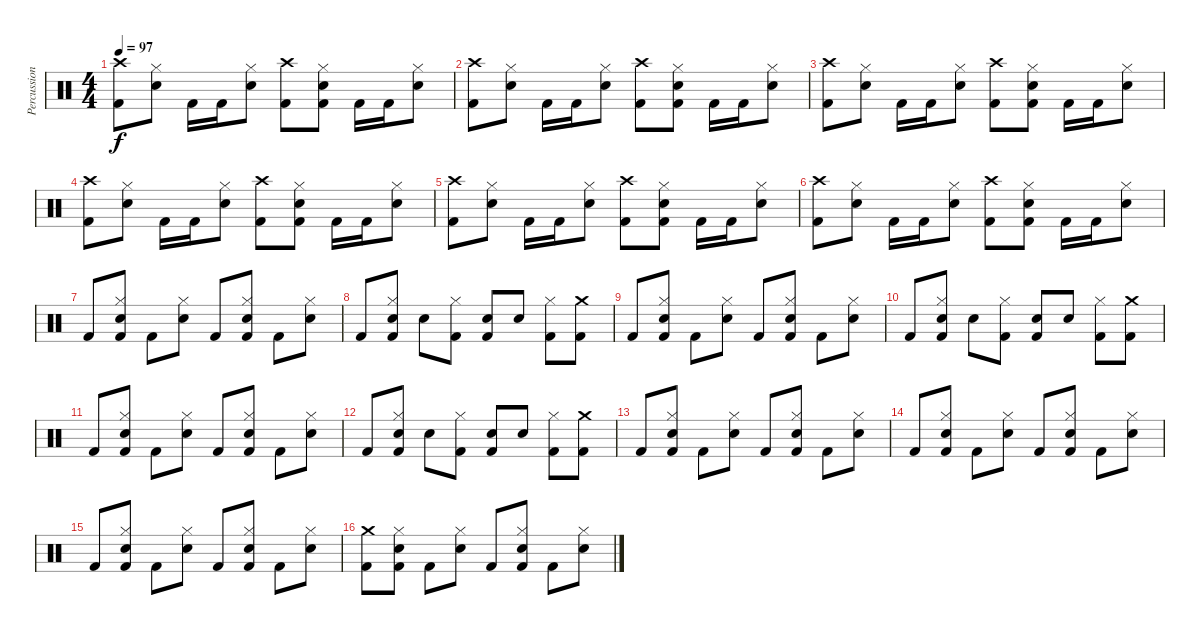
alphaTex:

\track ("Percussion" "Percussion") {instrument percussion}
\staff {score}
\articulation defaults
\ts (4 4)
\tempo 97
\clef neutral
\ks c
("Crash high (hit)" "Kick (hit) 2").8{dy f} ("Hi-Hat (closed)" "Snare (hit) 2").8 "Kick (hit) 2".16 "Kick (hit) 2".16 ("Hi-Hat (closed)" "Snare (hit) 2").8 ("Crash high (hit)" "Kick (hit) 2").8 ("Hi-Hat (closed)" "Snare (hit) 2" "Kick (hit) 2").8 "Kick (hit) 2".16 "Kick (hit) 2".16 ("Hi-Hat (closed)" "Snare (hit) 2").8 |
("Crash high (hit)" "Kick (hit) 2").8 ("Hi-Hat (closed)" "Snare (hit) 2").8 "Kick (hit) 2".16 "Kick (hit) 2".16 ("Hi-Hat (closed)" "Snare (hit) 2").8 ("Crash high (hit)" "Kick (hit) 2").8 ("Hi-Hat (closed)" "Snare (hit) 2" "Kick (hit) 2").8 "Kick (hit) 2".16 "Kick (hit) 2".16 ("Hi-Hat (closed)" "Snare (hit) 2").8 |
("Crash high (hit)" "Kick (hit) 2").8 ("Hi-Hat (closed)" "Snare (hit) 2").8 "Kick (hit) 2".16 "Kick (hit) 2".16 ("Hi-Hat (closed)" "Snare (hit) 2").8 ("Crash high (hit)" "Kick (hit) 2").8 ("Hi-Hat (closed)" "Snare (hit) 2" "Kick (hit) 2").8 "Kick (hit) 2".16 "Kick (hit) 2".16 ("Hi-Hat (closed)" "Snare (hit) 2").8 |
("Crash high (hit)" "Kick (hit) 2").8 ("Hi-Hat (closed)" "Snare (hit) 2").8 "Kick (hit) 2".16 "Kick (hit) 2".16 ("Hi-Hat (closed)" "Snare (hit) 2").8 ("Crash high (hit)" "Kick (hit) 2").8 ("Hi-Hat (closed)" "Snare (hit) 2" "Kick (hit) 2").8 "Kick (hit) 2".16 "Kick (hit) 2".16 ("Hi-Hat (closed)" "Snare (hit) 2").8 |
("Crash high (hit)" "Kick (hit) 2").8 ("Hi-Hat (closed)" "Snare (hit) 2").8 "Kick (hit) 2".16 "Kick (hit) 2".16 ("Hi-Hat (closed)" "Snare (hit) 2").8 ("Crash high (hit)" "Kick (hit) 2").8 ("Hi-Hat (closed)" "Snare (hit) 2" "Kick (hit) 2").8 "Kick (hit) 2".16 "Kick (hit) 2".16 ("Hi-Hat (closed)" "Snare (hit) 2").8 |
("Crash high (hit)" "Kick (hit) 2").8 ("Hi-Hat (closed)" "Snare (hit) 2").8 "Kick (hit) 2".16 "Kick (hit) 2".16 ("Hi-Hat (closed)" "Snare (hit) 2").8 ("Crash high (hit)" "Kick (hit) 2").8 ("Hi-Hat (closed)" "Snare (hit) 2" "Kick (hit) 2").8 "Kick (hit) 2".16 "Kick (hit) 2".16 ("Hi-Hat (closed)" "Snare (hit) 2").8 |
"Kick (hit) 2".8 ("Hi-Hat (closed)" "Snare (hit) 2" "Kick (hit) 2").8 "Kick (hit) 2".8 ("Hi-Hat (closed)" "Snare (hit) 2").8 "Kick (hit) 2".8 ("Hi-Hat (closed)" "Snare (hit) 2" "Kick (hit) 2").8 "Kick (hit) 2".8 ("Hi-Hat (closed)" "Snare (hit) 2").8 |
"Kick (hit) 2".8 ("Hi-Hat (closed)" "Snare (hit) 2" "Kick (hit) 2").8 "Snare (hit) 2".8 ("Hi-Hat (closed)" "Kick (hit) 2").8 ("Snare (hit) 2" "Kick (hit) 2").8 "Snare (hit) 2".8 ("Hi-Hat (closed)" "Kick (hit) 2").8 ("Crash medium (hit)" "Kick (hit) 2").8 |
"Kick (hit) 2".8 ("Hi-Hat (closed)" "Snare (hit) 2" "Kick (hit) 2").8 "Kick (hit) 2".8 ("Hi-Hat (closed)" "Snare (hit) 2").8 "Kick (hit) 2".8 ("Hi-Hat (closed)" "Snare (hit) 2" "Kick (hit) 2").8 "Kick (hit) 2".8 ("Hi-Hat (closed)" "Snare (hit) 2").8 |
"Kick (hit) 2".8 ("Hi-Hat (closed)" "Snare (hit) 2" "Kick (hit) 2").8 "Snare (hit) 2".8 ("Hi-Hat (closed)" "Kick (hit) 2").8 ("Snare (hit) 2" "Kick (hit) 2").8 "Snare (hit) 2".8 ("Hi-Hat (closed)" "Kick (hit) 2").8 ("Crash medium (hit)" "Kick (hit) 2").8 |
"Kick (hit) 2".8 ("Hi-Hat (closed)" "Snare (hit) 2" "Kick (hit) 2").8 "Kick (hit) 2".8 ("Hi-Hat (closed)" "Snare (hit) 2").8 "Kick (hit) 2".8 ("Hi-Hat (closed)" "Snare (hit) 2" "Kick (hit) 2").8 "Kick (hit) 2".8 ("Hi-Hat (closed)" "Snare (hit) 2").8 |
"Kick (hit) 2".8 ("Hi-Hat (closed)" "Snare (hit) 2" "Kick (hit) 2").8 "Snare (hit) 2".8 ("Hi-Hat (closed)" "Kick (hit) 2").8 ("Snare (hit) 2" "Kick (hit) 2").8 "Snare (hit) 2".8 ("Hi-Hat (closed)" "Kick (hit) 2").8 ("Crash medium (hit)" "Kick (hit) 2").8 |
"Kick (hit) 2".8 ("Hi-Hat (closed)" "Snare (hit) 2" "Kick (hit) 2").8 "Kick (hit) 2".8 ("Hi-Hat (closed)" "Snare (hit) 2").8 "Kick (hit) 2".8 ("Hi-Hat (closed)" "Snare (hit) 2" "Kick (hit) 2").8 "Kick (hit) 2".8 ("Hi-Hat (closed)" "Snare (hit) 2").8 |
"Kick (hit) 2".8 ("Hi-Hat (closed)" "Snare (hit) 2" "Kick (hit) 2").8 "Kick (hit) 2".8 ("Hi-Hat (closed)" "Snare (hit) 2").8 "Kick (hit) 2".8 ("Hi-Hat (closed)" "Snare (hit) 2" "Kick (hit) 2").8 "Kick (hit) 2".8 ("Hi-Hat (closed)" "Snare (hit) 2").8 |
"Kick (hit) 2".8 ("Hi-Hat (closed)" "Snare (hit) 2" "Kick (hit) 2").8 "Kick (hit) 2".8 ("Hi-Hat (closed)" "Snare (hit) 2").8 "Kick (hit) 2".8 ("Hi-Hat (closed)" "Snare (hit) 2" "Kick (hit) 2").8 "Kick (hit) 2".8 ("Hi-Hat (closed)" "Snare (hit) 2").8 |
("Crash medium (hit)" "Kick (hit) 2").8 ("Hi-Hat (closed)" "Snare (hit) 2" "Kick (hit) 2").8 "Kick (hit) 2".8 ("Hi-Hat (closed)" "Snare (hit) 2").8 "Kick (hit) 2".8 ("Hi-Hat (closed)" "Snare (hit) 2" "Kick (hit) 2").8 "Kick (hit) 2".8 ("Hi-Hat (closed)" "Snare (hit) 2").8
